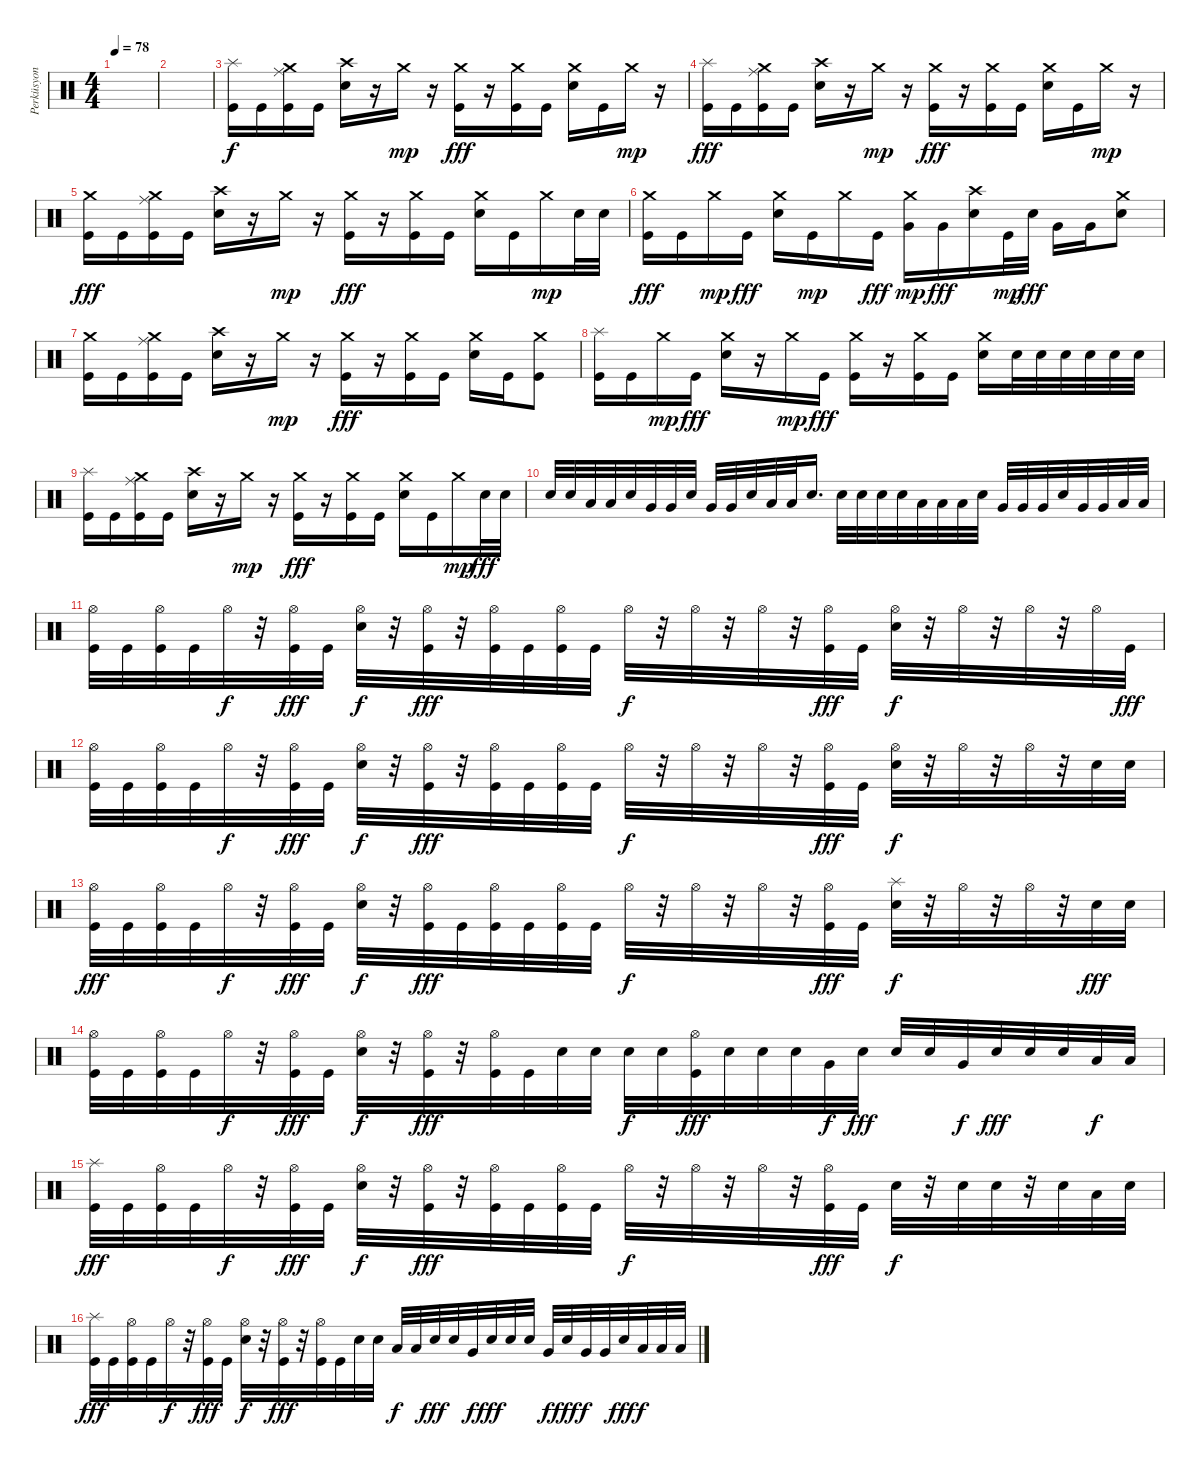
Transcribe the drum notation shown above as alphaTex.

\track ("Perküsyon" "Perküsyon") {instrument percussion}
\staff {score}
\articulation defaults
\ts (4 4)
\tempo 78
\clef neutral
\ks c
|
|
("Kick (hit)" "Splash (hit)").16{volume 12} "Kick (hit)".16 ("Crash medium (hit)" "Kick (hit)" "Ride (middle)").16 "Kick (hit)".16 ("Electric Snare (hit)" "Crash high (hit)").16 r.16 "Crash medium (hit)".16{dy mp} r.16 ("Crash medium (hit)" "Kick (hit)").16{dy fff} r.16 ("Crash medium (hit)" "Kick (hit)").16 "Kick (hit)".16 ("Crash medium (hit)" "Electric Snare (hit)").16 "Kick (hit)".16 "Crash medium (hit)".16{dy mp} r.16 |
("Kick (hit)" "Splash (hit)").16{dy fff} "Kick (hit)".16 ("Crash medium (hit)" "Kick (hit)" "Ride (middle)").16 "Kick (hit)".16 ("Electric Snare (hit)" "Crash high (hit)").16 r.16 "Crash medium (hit)".16{dy mp} r.16 ("Crash medium (hit)" "Kick (hit)").16{dy fff} r.16 ("Crash medium (hit)" "Kick (hit)").16 "Kick (hit)".16 ("Crash medium (hit)" "Electric Snare (hit)").16 "Kick (hit)".16 "Crash medium (hit)".16{dy mp} r.16 |
("Crash medium (hit)" "Kick (hit)").16{dy fff} "Kick (hit)".16 ("Crash medium (hit)" "Kick (hit)" "Ride (middle)").16 "Kick (hit)".16 ("Electric Snare (hit)" "Crash high (hit)").16 r.16 "Crash medium (hit)".16{dy mp} r.16 ("Crash medium (hit)" "Kick (hit)").16{dy fff} r.16 ("Crash medium (hit)" "Kick (hit)").16 "Kick (hit)".16 ("Crash medium (hit)" "Electric Snare (hit)").16 "Kick (hit)".16 "Crash medium (hit)".16{dy mp} "Electric Snare (hit)".32 "Electric Snare (hit)".32 |
("Crash medium (hit)" "Kick (hit)").16{dy fff} "Kick (hit)".16 "Crash medium (hit)".16{dy mp} "Kick (hit)".16{dy fff} ("Crash medium (hit)" "Electric Snare (hit)").16 "Kick (hit)".16{dy mp} "Crash medium (hit)".16 "Kick (hit)".16{dy fff} ("Crash medium (hit)" "Very Low Tom (hit)").16{dy mp} "Very Low Tom (hit)".16{dy fff} ("Electric Snare (hit)" "Crash high (hit)").16 "Kick (hit)".32{dy mp} "Electric Snare (hit)".32{dy fff} "Very Low Tom (hit)".16 "Very Low Tom (hit)".16 ("Crash medium (hit)" "Electric Snare (hit)").8 |
("Crash medium (hit)" "Kick (hit)").16 "Kick (hit)".16 ("Crash medium (hit)" "Kick (hit)" "Ride (middle)").16 "Kick (hit)".16 ("Electric Snare (hit)" "Crash high (hit)").16 r.16 "Crash medium (hit)".16{dy mp} r.16 ("Crash medium (hit)" "Kick (hit)").16{dy fff} r.16 ("Crash medium (hit)" "Kick (hit)").16 "Kick (hit)".16 ("Crash medium (hit)" "Electric Snare (hit)").16 "Kick (hit)".16 ("Crash medium (hit)" "Kick (hit)").8 |
("Kick (hit)" "Splash (hit)").16 "Kick (hit)".16 "Crash medium (hit)".16{dy mp} "Kick (hit)".16{dy fff} ("Crash medium (hit)" "Electric Snare (hit)").16 r.16 "Crash medium (hit)".16{dy mp} "Kick (hit)".16{dy fff} ("Crash medium (hit)" "Kick (hit)").16 r.16 ("Crash medium (hit)" "Kick (hit)").16 "Kick (hit)".16 ("Crash medium (hit)" "Electric Snare (hit)").16 "Electric Snare (hit)".32 "Electric Snare (hit)".32 "Electric Snare (hit)".32 "Electric Snare (hit)".32 "Electric Snare (hit)".32 "Electric Snare (hit)".32 |
("Kick (hit)" "Splash (hit)").16 "Kick (hit)".16 ("Crash medium (hit)" "Kick (hit)" "Ride (middle)").16 "Kick (hit)".16 ("Electric Snare (hit)" "Crash high (hit)").16 r.16 "Crash medium (hit)".16{dy mp} r.16 ("Crash medium (hit)" "Kick (hit)").16{dy fff} r.16 ("Crash medium (hit)" "Kick (hit)").16 "Kick (hit)".16 ("Crash medium (hit)" "Electric Snare (hit)").16 "Kick (hit)".16 "Crash medium (hit)".16{dy mp} "Electric Snare (hit)".32{dy fff} "Electric Snare (hit)".32 |
"Electric Snare (hit)".32 "Electric Snare (hit)".32 "Low Tom (hit)".32 "Low Tom (hit)".32 "Electric Snare (hit)".32 "Very Low Tom (hit)".32 "Very Low Tom (hit)".32 "Electric Snare (hit)".32 "Very Low Tom (hit)".32 "Very Low Tom (hit)".32 "Electric Snare (hit)".32 "Low Floor Tom (hit)".32 "Low Floor Tom (hit)".32 "Electric Snare (hit)".16{d} "Electric Snare (hit)".32 "Electric Snare (hit)".32 "Electric Snare (hit)".32 "Electric Snare (hit)".32 "Low Tom (hit)".32 "Low Tom (hit)".32 "Low Tom (hit)".32 "Electric Snare (hit)".32 "Very Low Tom (hit)".32 "Very Low Tom (hit)".32 "Very Low Tom (hit)".32 "Electric Snare (hit)".32 "Very Low Tom (hit)".32 "Very Low Tom (hit)".32 "Low Floor Tom (hit)".32 "Low Floor Tom (hit)".32 |
("Hi-Hat (open)" "Kick (hit)").32 "Kick (hit)".32 ("Hi-Hat (open)" "Kick (hit)").32 "Kick (hit)".32 "Hi-Hat (open)".32{dy f} r.32 ("Hi-Hat (open)" "Kick (hit)").32{dy fff} "Kick (hit)".32 ("Hi-Hat (open)" "Electric Snare (hit)").32{dy f} r.32 ("Hi-Hat (open)" "Kick (hit)").32{dy fff} r.32 ("Hi-Hat (open)" "Kick (hit)").32 "Kick (hit)".32 ("Hi-Hat (open)" "Kick (hit)").32 "Kick (hit)".32 "Hi-Hat (open)".32{dy f} r.32 "Hi-Hat (open)".32 r.32 "Hi-Hat (open)".32 r.32 ("Hi-Hat (open)" "Kick (hit)").32{dy fff} "Kick (hit)".32 ("Hi-Hat (open)" "Electric Snare (hit)").32{dy f} r.32 "Hi-Hat (open)".32 r.32 "Hi-Hat (open)".32 r.32 "Hi-Hat (open)".32 "Kick (hit)".32{dy fff} |
("Hi-Hat (open)" "Kick (hit)").32 "Kick (hit)".32 ("Hi-Hat (open)" "Kick (hit)").32 "Kick (hit)".32 "Hi-Hat (open)".32{dy f} r.32 ("Hi-Hat (open)" "Kick (hit)").32{dy fff} "Kick (hit)".32 ("Hi-Hat (open)" "Electric Snare (hit)").32{dy f} r.32 ("Hi-Hat (open)" "Kick (hit)").32{dy fff} r.32 ("Hi-Hat (open)" "Kick (hit)").32 "Kick (hit)".32 ("Hi-Hat (open)" "Kick (hit)").32 "Kick (hit)".32 "Hi-Hat (open)".32{dy f} r.32 "Hi-Hat (open)".32 r.32 "Hi-Hat (open)".32 r.32 ("Hi-Hat (open)" "Kick (hit)").32{dy fff} "Kick (hit)".32 ("Hi-Hat (open)" "Electric Snare (hit)").32{dy f} r.32 "Hi-Hat (open)".32 r.32 "Hi-Hat (open)".32 r.32 "Electric Snare (hit)".32 "Electric Snare (hit)".32 |
("Hi-Hat (open)" "Kick (hit)").32{dy fff} "Kick (hit)".32 ("Hi-Hat (open)" "Kick (hit)").32 "Kick (hit)".32 "Hi-Hat (open)".32{dy f} r.32 ("Hi-Hat (open)" "Kick (hit)").32{dy fff} "Kick (hit)".32 ("Hi-Hat (open)" "Electric Snare (hit)").32{dy f} r.32 ("Hi-Hat (open)" "Kick (hit)").32{dy fff} "Kick (hit)".32 ("Hi-Hat (open)" "Kick (hit)").32 "Kick (hit)".32 ("Hi-Hat (open)" "Kick (hit)").32 "Kick (hit)".32 "Hi-Hat (open)".32{dy f} r.32 "Hi-Hat (open)".32 r.32 "Hi-Hat (open)".32 r.32 ("Hi-Hat (open)" "Kick (hit)").32{dy fff} "Kick (hit)".32 ("Electric Snare (hit)" "Splash (hit)").32{dy f} r.32 "Hi-Hat (open)".32 r.32 "Hi-Hat (open)".32 r.32 "Electric Snare (hit)".32{dy fff} "Electric Snare (hit)".32 |
("Hi-Hat (open)" "Kick (hit)").32 "Kick (hit)".32 ("Hi-Hat (open)" "Kick (hit)").32 "Kick (hit)".32 "Hi-Hat (open)".32{dy f} r.32 ("Hi-Hat (open)" "Kick (hit)").32{dy fff} "Kick (hit)".32 ("Hi-Hat (open)" "Electric Snare (hit)").32{dy f} r.32 ("Hi-Hat (open)" "Kick (hit)").32{dy fff} r.32 ("Hi-Hat (open)" "Kick (hit)").32 "Kick (hit)".32 "Electric Snare (hit)".32 "Electric Snare (hit)".32 "Electric Snare (hit)".32{dy f} "Electric Snare (hit)".32 ("Hi-Hat (open)" "Kick (hit)").32{dy fff} "Electric Snare (hit)".32 "Electric Snare (hit)".32 "Electric Snare (hit)".32 "Very Low Tom (hit)".32{dy f} "Electric Snare (hit)".32{dy fff} "Electric Snare (hit)".32 "Electric Snare (hit)".32 "Very Low Tom (hit)".32{dy f} "Electric Snare (hit)".32{dy fff} "Electric Snare (hit)".32 "Electric Snare (hit)".32 "Low Floor Tom (hit)".32{dy f} "Low Floor Tom (hit)".32 |
("Kick (hit)" "Splash (hit)").32{dy fff} "Kick (hit)".32 ("Hi-Hat (open)" "Kick (hit)").32 "Kick (hit)".32 "Hi-Hat (open)".32{dy f} r.32 ("Hi-Hat (open)" "Kick (hit)").32{dy fff} "Kick (hit)".32 ("Hi-Hat (open)" "Electric Snare (hit)").32{dy f} r.32 ("Hi-Hat (open)" "Kick (hit)").32{dy fff} r.32 ("Hi-Hat (open)" "Kick (hit)").32 "Kick (hit)".32 ("Hi-Hat (open)" "Kick (hit)").32 "Kick (hit)".32 "Hi-Hat (open)".32{dy f} r.32 "Hi-Hat (open)".32 r.32 "Hi-Hat (open)".32 r.32 ("Hi-Hat (open)" "Kick (hit)").32{dy fff} "Kick (hit)".32 "Electric Snare (hit)".32{dy f} r.32 "Electric Snare (hit)".32 "Electric Snare (hit)".32 r.32 "Electric Snare (hit)".32 "Low Tom (hit)".32 "Electric Snare (hit)".32 |
("Kick (hit)" "Splash (hit)").32{dy fff} "Kick (hit)".32 ("Hi-Hat (open)" "Kick (hit)").32 "Kick (hit)".32 "Hi-Hat (open)".32{dy f} r.32 ("Hi-Hat (open)" "Kick (hit)").32{dy fff} "Kick (hit)".32 ("Hi-Hat (open)" "Electric Snare (hit)").32{dy f} r.32 ("Hi-Hat (open)" "Kick (hit)").32{dy fff} r.32 ("Hi-Hat (open)" "Kick (hit)").32 "Kick (hit)".32 "Electric Snare (hit)".32 "Electric Snare (hit)".32 "Low Tom (hit)".32{dy f} "Low Tom (hit)".32 "Electric Snare (hit)".32{dy fff} "Electric Snare (hit)".32 "Very Low Tom (hit)".32{dy f} "Electric Snare (hit)".32{dy fff} "Electric Snare (hit)".32 "Electric Snare (hit)".32 "Very Low Tom (hit)".32{dy f} "Electric Snare (hit)".32{dy fff} "Very Low Tom (hit)".32{dy f} "Very Low Tom (hit)".32 "Electric Snare (hit)".32{dy fff} "Low Floor Tom (hit)".32{dy f} "Low Floor Tom (hit)".32 "Low Floor Tom (hit)".32
